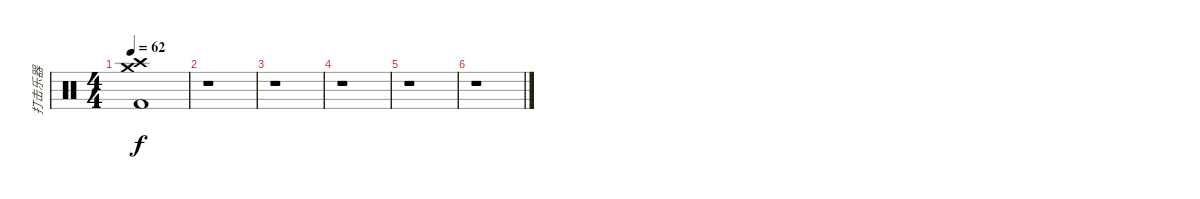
\track ("打击乐器" "打击乐器") {instrument percussion}
\staff {score}
\articulation defaults
\ts (4 4)
\tempo 62
\clef neutral
\ks c
("Crash high (hit)" "Crash medium (hit)" "Kick (hit) 2").1{dy f} |
r.1 |
r.1 |
r.1 |
r.1 |
r.1
